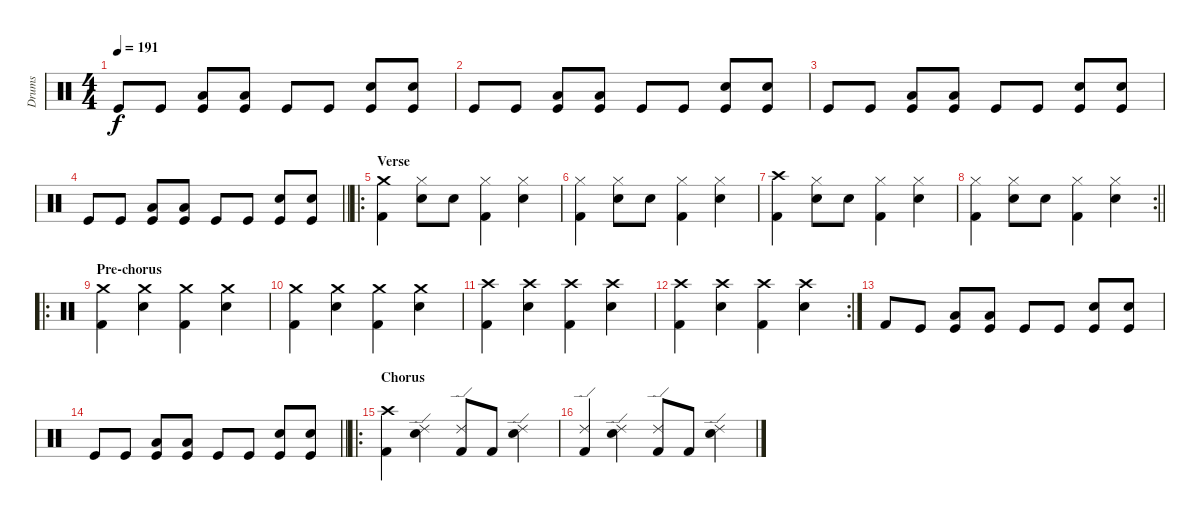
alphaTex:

\track ("Drums" "Drums") {instrument percussion}
\staff {score}
\articulation defaults
\ts (4 4)
\tempo 191
\clef neutral
\ks c "Kick (hit)".8{dy f} "Kick (hit)".8
("Low Floor Tom (hit)" "Kick (hit)").8 ("Low Floor Tom (hit)" "Kick (hit)").8 "Kick (hit)".8 "Kick (hit)".8 ("Electric Snare (hit)" "Kick (hit)").8 ("Electric Snare (hit)" "Kick (hit)").8 |
"Kick (hit)".8 "Kick (hit)".8 ("Low Floor Tom (hit)" "Kick (hit)").8 ("Low Floor Tom (hit)" "Kick (hit)").8 "Kick (hit)".8 "Kick (hit)".8 ("Electric Snare (hit)" "Kick (hit)").8 ("Electric Snare (hit)" "Kick (hit)").8 |
"Kick (hit)".8 "Kick (hit)".8 ("Low Floor Tom (hit)" "Kick (hit)").8 ("Low Floor Tom (hit)" "Kick (hit)").8 "Kick (hit)".8 "Kick (hit)".8 ("Electric Snare (hit)" "Kick (hit)").8 ("Electric Snare (hit)" "Kick (hit)").8 |
\barLineRight lightlight "Kick (hit)".8 "Kick (hit)".8
("Low Floor Tom (hit)" "Kick (hit)").8 ("Low Floor Tom (hit)" "Kick (hit)").8 "Kick (hit)".8 "Kick (hit)".8 ("Electric Snare (hit)" "Kick (hit)").8 ("Electric Snare (hit)" "Kick (hit)").8 |
\ro
\section ("" "Verse")
("Crash medium (hit)" "Kick (hit) 2").4 ("Hi-Hat (closed)" "Electric Snare (hit)").8 "Electric Snare (hit)".8 ("Hi-Hat (closed)" "Kick (hit) 2").4 ("Hi-Hat (closed)" "Electric Snare (hit)").4 |
("Hi-Hat (closed)" "Kick (hit) 2").4 ("Hi-Hat (closed)" "Electric Snare (hit)").8 "Electric Snare (hit)".8 ("Hi-Hat (closed)" "Kick (hit) 2").4 ("Hi-Hat (closed)" "Electric Snare (hit)").4 |
("Crash high (hit)" "Kick (hit) 2").4 ("Hi-Hat (closed)" "Electric Snare (hit)").8 "Electric Snare (hit)".8 ("Hi-Hat (closed)" "Kick (hit) 2").4 ("Hi-Hat (closed)" "Electric Snare (hit)").4 |
\rc 2
\barLineRight lightlight
("Hi-Hat (closed)" "Kick (hit) 2").4 ("Hi-Hat (closed)" "Electric Snare (hit)").8 "Electric Snare (hit)".8 ("Hi-Hat (closed)" "Kick (hit) 2").4 ("Hi-Hat (closed)" "Electric Snare (hit)").4 |
\ro
\section ("" "Pre-chorus")
("Crash medium (hit)" "Kick (hit) 2").4 ("Crash medium (hit)" "Snare (hit) 2").4 ("Crash medium (hit)" "Kick (hit) 2").4 ("Crash medium (hit)" "Snare (hit) 2").4 |
("Crash medium (hit)" "Kick (hit) 2").4 ("Crash medium (hit)" "Snare (hit) 2").4 ("Crash medium (hit)" "Kick (hit) 2").4 ("Crash medium (hit)" "Snare (hit) 2").4 |
("Crash high (hit)" "Kick (hit) 2").4 ("Crash high (hit)" "Snare (hit) 2").4 ("Crash high (hit)" "Kick (hit) 2").4 ("Crash high (hit)" "Snare (hit) 2").4 |
\rc 2
("Crash high (hit)" "Kick (hit) 2").4 ("Crash high (hit)" "Snare (hit) 2").4 ("Crash high (hit)" "Kick (hit) 2").4 ("Crash high (hit)" "Snare (hit) 2").4 |
"Kick (hit) 2".8 "Kick (hit)".8 ("Low Floor Tom (hit)" "Kick (hit)").8 ("Low Floor Tom (hit)" "Kick (hit)").8 "Kick (hit)".8 "Kick (hit)".8 ("Electric Snare (hit)" "Kick (hit)").8 ("Electric Snare (hit)" "Kick (hit)").8 |
\barLineRight lightlight "Kick (hit)".8 "Kick (hit)".8
("Low Floor Tom (hit)" "Kick (hit)").8 ("Low Floor Tom (hit)" "Kick (hit)").8 "Kick (hit)".8 "Kick (hit)".8 ("Electric Snare (hit)" "Kick (hit)").8 ("Electric Snare (hit)" "Kick (hit)").8 |
\ro
\section ("" "Chorus")
("Crash high (hit)" "Kick (hit) 2").4 ("Ride (edge) 2" "Snare (hit) 2").4 ("Ride (edge) 2" "Kick (hit) 2").8 "Kick (hit) 2".8 ("Ride (edge) 2" "Snare (hit) 2").4 |
("Ride (edge) 2" "Kick (hit) 2").4 ("Ride (edge) 2" "Snare (hit) 2").4 ("Ride (edge) 2" "Kick (hit) 2").8 "Kick (hit) 2".8 ("Ride (edge) 2" "Snare (hit) 2").4
